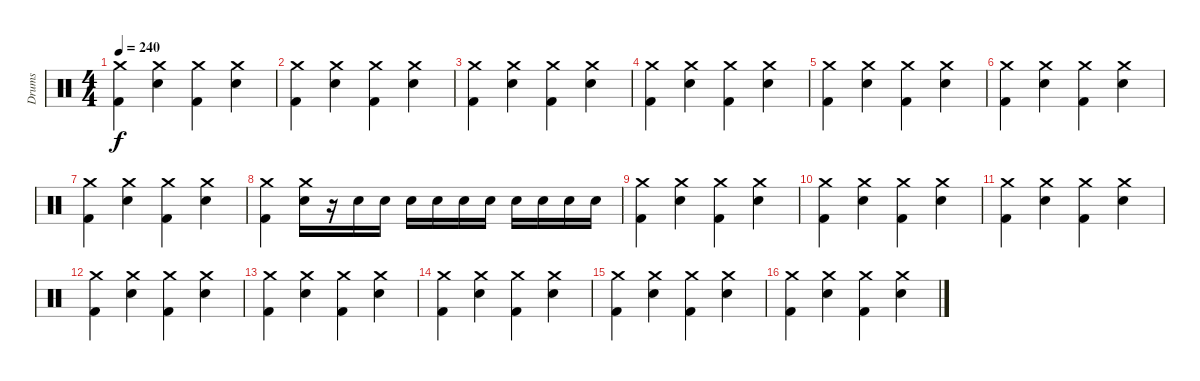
\track ("Drums" "Drums") {instrument percussion}
\staff {score}
\articulation defaults
\ts (4 4)
\tempo 240
\clef neutral
\ks c
("Crash medium (hit)" "Kick (hit) 2").4{dy f} ("Crash medium (hit)" "Electric Snare (hit)").4 ("Crash medium (hit)" "Kick (hit) 2").4 ("Crash medium (hit)" "Electric Snare (hit)").4 |
("Crash medium (hit)" "Kick (hit) 2").4 ("Crash medium (hit)" "Electric Snare (hit)").4 ("Crash medium (hit)" "Kick (hit) 2").4 ("Crash medium (hit)" "Electric Snare (hit)").4 |
("Crash medium (hit)" "Kick (hit) 2").4 ("Crash medium (hit)" "Electric Snare (hit)").4 ("Crash medium (hit)" "Kick (hit) 2").4 ("Crash medium (hit)" "Electric Snare (hit)").4 |
("Crash medium (hit)" "Kick (hit) 2").4 ("Crash medium (hit)" "Electric Snare (hit)").4 ("Crash medium (hit)" "Kick (hit) 2").4 ("Crash medium (hit)" "Electric Snare (hit)").4 |
("Crash medium (hit)" "Kick (hit) 2").4 ("Crash medium (hit)" "Electric Snare (hit)").4 ("Crash medium (hit)" "Kick (hit) 2").4 ("Crash medium (hit)" "Electric Snare (hit)").4 |
("Crash medium (hit)" "Kick (hit) 2").4 ("Crash medium (hit)" "Electric Snare (hit)").4 ("Crash medium (hit)" "Kick (hit) 2").4 ("Crash medium (hit)" "Electric Snare (hit)").4 |
("Crash medium (hit)" "Kick (hit) 2").4 ("Crash medium (hit)" "Electric Snare (hit)").4 ("Crash medium (hit)" "Kick (hit) 2").4 ("Crash medium (hit)" "Electric Snare (hit)").4 |
("Crash medium (hit)" "Kick (hit) 2").4 ("Crash medium (hit)" "Electric Snare (hit)").16 r.16 "Electric Snare (hit)".16 "Electric Snare (hit)".16 "Electric Snare (hit)".16 "Electric Snare (hit)".16 "Electric Snare (hit)".16 "Electric Snare (hit)".16 "Electric Snare (hit)".16 "Electric Snare (hit)".16 "Electric Snare (hit)".16 "Electric Snare (hit)".16 |
("Crash medium (hit)" "Kick (hit) 2").4 ("Crash medium (hit)" "Electric Snare (hit)").4 ("Crash medium (hit)" "Kick (hit) 2").4 ("Crash medium (hit)" "Electric Snare (hit)").4 |
("Crash medium (hit)" "Kick (hit) 2").4 ("Crash medium (hit)" "Electric Snare (hit)").4 ("Crash medium (hit)" "Kick (hit) 2").4 ("Crash medium (hit)" "Electric Snare (hit)").4 |
("Crash medium (hit)" "Kick (hit) 2").4 ("Crash medium (hit)" "Electric Snare (hit)").4 ("Crash medium (hit)" "Kick (hit) 2").4 ("Crash medium (hit)" "Electric Snare (hit)").4 |
("Crash medium (hit)" "Kick (hit) 2").4 ("Crash medium (hit)" "Electric Snare (hit)").4 ("Crash medium (hit)" "Kick (hit) 2").4 ("Crash medium (hit)" "Electric Snare (hit)").4 |
("Crash medium (hit)" "Kick (hit) 2").4 ("Crash medium (hit)" "Electric Snare (hit)").4 ("Crash medium (hit)" "Kick (hit) 2").4 ("Crash medium (hit)" "Electric Snare (hit)").4 |
("Crash medium (hit)" "Kick (hit) 2").4 ("Crash medium (hit)" "Electric Snare (hit)").4 ("Crash medium (hit)" "Kick (hit) 2").4 ("Crash medium (hit)" "Electric Snare (hit)").4 |
("Crash medium (hit)" "Kick (hit) 2").4 ("Crash medium (hit)" "Electric Snare (hit)").4 ("Crash medium (hit)" "Kick (hit) 2").4 ("Crash medium (hit)" "Electric Snare (hit)").4 |
("Crash medium (hit)" "Kick (hit) 2").4 ("Crash medium (hit)" "Electric Snare (hit)").4 ("Crash medium (hit)" "Kick (hit) 2").4 ("Crash medium (hit)" "Electric Snare (hit)").4
